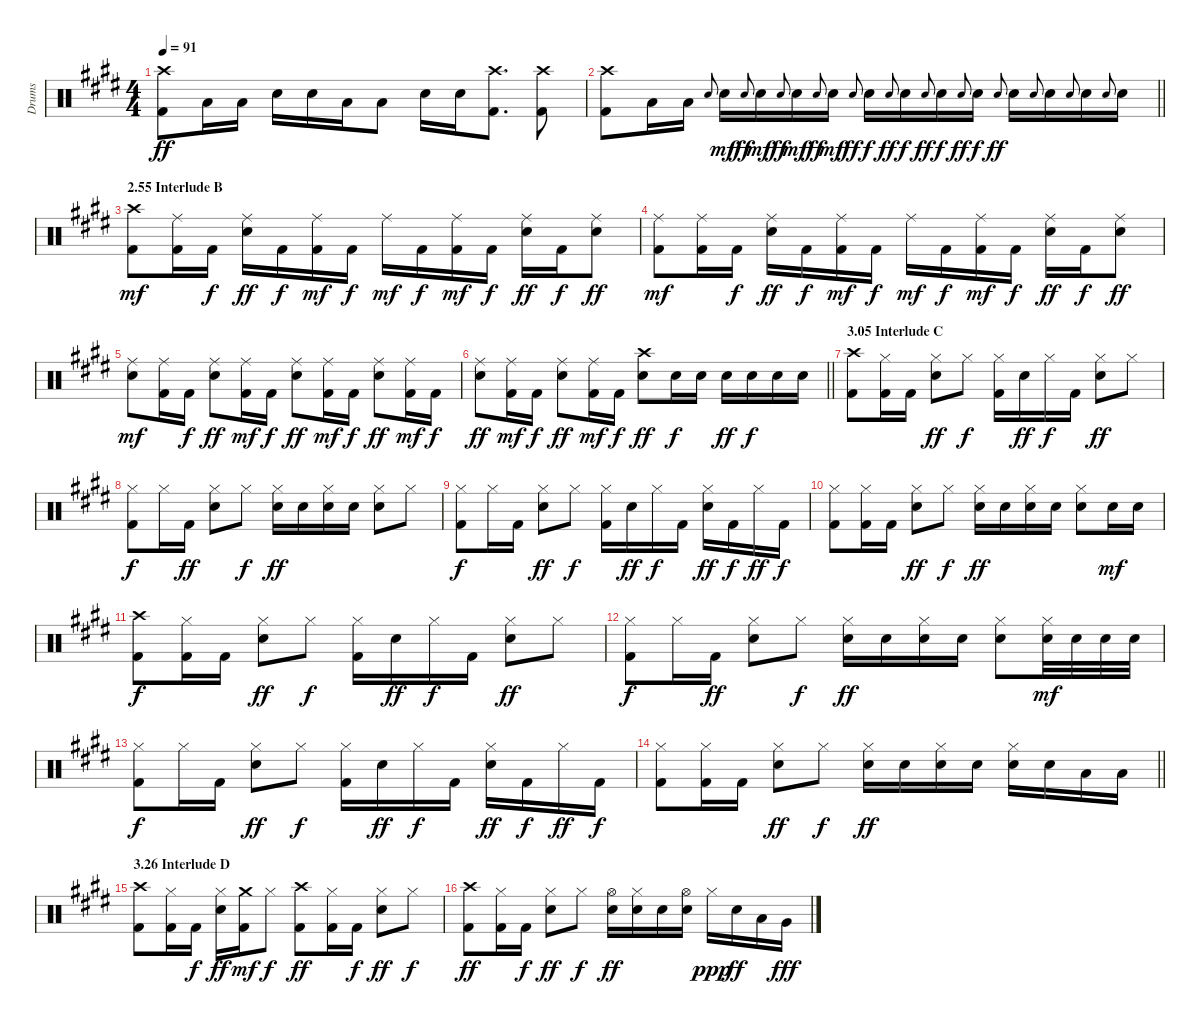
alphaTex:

\track ("Drums" "Drums") {instrument percussion}
\staff {score}
\articulation defaults
\ts (4 4)
\tempo 91
\clef neutral
\ks e
("Crash high (hit)" "Kick (hit) 2").8{dy ff} "Low Tom (hit)".16 "Low Tom (hit)".16 "Snare (hit) 2".16 "Snare (hit) 2".16 "Low Tom (hit)".16 "Low Tom (hit)".8 "Snare (hit) 2".16 "Snare (hit) 2".16 ("Crash high (hit)" "Kick (hit) 2").8{d} ("Crash high (hit)" "Kick (hit) 2").8 |
\barLineRight lightlight
("Crash high (hit)" "Kick (hit) 2").8 "Low Tom (hit)".16 "Low Tom (hit)".16 "Snare (hit) 2".8{gr onbeat} "Snare (hit) 2".16{dy mf} "Snare (hit) 2".8{gr onbeat dy ff} "Snare (hit) 2".16{dy mf} "Snare (hit) 2".8{gr onbeat dy ff} "Snare (hit) 2".16{dy mf} "Snare (hit) 2".8{gr onbeat dy ff} "Snare (hit) 2".16{dy mf} "Snare (hit) 2".8{gr onbeat dy ff} "Snare (hit) 2".16{dy f} "Snare (hit) 2".8{gr onbeat dy ff} "Snare (hit) 2".16{dy f} "Snare (hit) 2".8{gr onbeat dy ff} "Snare (hit) 2".16{dy f} "Snare (hit) 2".8{gr onbeat dy ff} "Snare (hit) 2".16{dy f} "Snare (hit) 2".8{gr onbeat dy ff} "Snare (hit) 2".16 "Snare (hit) 2".8{gr onbeat} "Snare (hit) 2".16 "Snare (hit) 2".8{gr onbeat} "Snare (hit) 2".16 "Snare (hit) 2".8{gr onbeat} "Snare (hit) 2".16 |
\section ("" "2.55 Interlude B")
("Crash high (hit)" "Kick (hit) 2").8{dy mf} ("Ride (middle)" "Kick (hit) 2").16 "Kick (hit) 2".16{dy f} ("Ride (middle)" "Snare (hit) 2").16{dy ff} "Kick (hit) 2".16{dy f} ("Ride (middle)" "Kick (hit) 2").16{dy mf} "Kick (hit) 2".16{dy f} "Ride (middle)".16{dy mf} "Kick (hit) 2".16{dy f} ("Ride (middle)" "Kick (hit) 2").16{dy mf} "Kick (hit) 2".16{dy f} ("Ride (middle)" "Snare (hit) 2").16{dy ff} "Kick (hit) 2".16{dy f} ("Ride (middle)" "Snare (hit) 2").8{dy ff} |
("Ride (middle)" "Kick (hit) 2").8{dy mf} ("Ride (middle)" "Kick (hit) 2").16 "Kick (hit) 2".16{dy f} ("Ride (middle)" "Snare (hit) 2").16{dy ff} "Kick (hit) 2".16{dy f} ("Ride (middle)" "Kick (hit) 2").16{dy mf} "Kick (hit) 2".16{dy f} "Ride (middle)".16{dy mf} "Kick (hit) 2".16{dy f} ("Ride (middle)" "Kick (hit) 2").16{dy mf} "Kick (hit) 2".16{dy f} ("Ride (middle)" "Snare (hit) 2").16{dy ff} "Kick (hit) 2".16{dy f} ("Ride (middle)" "Snare (hit) 2").8{dy ff} |
("Ride (middle)" "Snare (hit) 2").8{dy mf} ("Ride (middle)" "Kick (hit) 2").16 "Kick (hit) 2".16{dy f} ("Ride (middle)" "Snare (hit) 2").8{dy ff} ("Ride (middle)" "Kick (hit) 2").16{dy mf} "Kick (hit) 2".16{dy f} ("Ride (middle)" "Snare (hit) 2").8{dy ff} ("Ride (middle)" "Kick (hit) 2").16{dy mf} "Kick (hit) 2".16{dy f} ("Ride (middle)" "Snare (hit) 2").8{dy ff} ("Ride (middle)" "Kick (hit) 2").16{dy mf} "Kick (hit) 2".16{dy f} |
\barLineRight lightlight
("Ride (middle)" "Snare (hit) 2").8{dy ff} ("Ride (middle)" "Kick (hit) 2").16{dy mf} "Kick (hit) 2".16{dy f} ("Ride (middle)" "Snare (hit) 2").8{dy ff} ("Ride (middle)" "Kick (hit) 2").16{dy mf} "Kick (hit) 2".16{dy f} ("Crash high (hit)" "Snare (hit) 2").8{dy ff} "Snare (hit) 2".16{dy f} "Snare (hit) 2".16 "Snare (hit) 2".16{dy ff} "Snare (hit) 2".16{dy f} "Snare (hit) 2".16 "Snare (hit) 2".16 |
\section ("" "3.05 Interlude C")
("Crash high (hit)" "Kick (hit) 2").8 ("Hi-Hat (closed)" "Kick (hit) 2").16 "Kick (hit) 2".16 ("Hi-Hat (closed)" "Snare (hit) 2").8{dy ff} "Hi-Hat (closed)".8{dy f} ("Hi-Hat (closed)" "Kick (hit) 2").16 "Snare (hit) 2".16{dy ff} "Hi-Hat (closed)".16{dy f} "Kick (hit) 2".16 ("Hi-Hat (closed)" "Snare (hit) 2").8{dy ff} "Hi-Hat (closed)".8 |
("Hi-Hat (closed)" "Kick (hit) 2").8{dy f} "Hi-Hat (closed)".16 "Kick (hit) 2".16{dy ff} ("Hi-Hat (closed)" "Snare (hit) 2").8 "Hi-Hat (closed)".8{dy f} ("Hi-Hat (closed)" "Snare (hit) 2").16{dy ff} "Snare (hit) 2".16 ("Hi-Hat (closed)" "Snare (hit) 2").16 "Snare (hit) 2".16 ("Hi-Hat (closed)" "Snare (hit) 2").8 "Hi-Hat (closed)".8 |
("Hi-Hat (closed)" "Kick (hit) 2").8{dy f} "Hi-Hat (closed)".16 "Kick (hit) 2".16 ("Hi-Hat (closed)" "Snare (hit) 2").8{dy ff} "Hi-Hat (closed)".8{dy f} ("Hi-Hat (closed)" "Kick (hit) 2").16 "Snare (hit) 2".16{dy ff} "Hi-Hat (closed)".16{dy f} "Kick (hit) 2".16 ("Hi-Hat (closed)" "Snare (hit) 2").16{dy ff} "Kick (hit) 2".16{dy f} "Hi-Hat (closed)".16{dy ff} "Kick (hit) 2".16{dy f} |
("Hi-Hat (closed)" "Kick (hit) 2").8 ("Hi-Hat (closed)" "Kick (hit) 2").16 "Kick (hit) 2".16 ("Hi-Hat (closed)" "Snare (hit) 2").8{dy ff} "Hi-Hat (closed)".8{dy f} ("Hi-Hat (closed)" "Snare (hit) 2").16{dy ff} "Snare (hit) 2".16 ("Hi-Hat (closed)" "Snare (hit) 2").16 "Snare (hit) 2".16 ("Hi-Hat (closed)" "Snare (hit) 2").8 "Snare (hit) 2".16{dy mf} "Snare (hit) 2".16 |
("Crash high (hit)" "Kick (hit) 2").8{dy f} ("Hi-Hat (closed)" "Kick (hit) 2").16 "Kick (hit) 2".16 ("Hi-Hat (closed)" "Snare (hit) 2").8{dy ff} "Hi-Hat (closed)".8{dy f} ("Hi-Hat (closed)" "Kick (hit) 2").16 "Snare (hit) 2".16{dy ff} "Hi-Hat (closed)".16{dy f} "Kick (hit) 2".16 ("Hi-Hat (closed)" "Snare (hit) 2").8{dy ff} "Hi-Hat (closed)".8 |
("Hi-Hat (closed)" "Kick (hit) 2").8{dy f} "Hi-Hat (closed)".16 "Kick (hit) 2".16{dy ff} ("Hi-Hat (closed)" "Snare (hit) 2").8 "Hi-Hat (closed)".8{dy f} ("Hi-Hat (closed)" "Snare (hit) 2").16{dy ff} "Snare (hit) 2".16 ("Hi-Hat (closed)" "Snare (hit) 2").16 "Snare (hit) 2".16 ("Hi-Hat (closed)" "Snare (hit) 2").8 ("Hi-Hat (closed)" "Snare (hit) 2").32{dy mf} "Snare (hit) 2".32 "Snare (hit) 2".32 "Snare (hit) 2".32 |
("Hi-Hat (closed)" "Kick (hit) 2").8{dy f} "Hi-Hat (closed)".16 "Kick (hit) 2".16 ("Hi-Hat (closed)" "Snare (hit) 2").8{dy ff} "Hi-Hat (closed)".8{dy f} ("Hi-Hat (closed)" "Kick (hit) 2").16 "Snare (hit) 2".16{dy ff} "Hi-Hat (closed)".16{dy f} "Kick (hit) 2".16 ("Hi-Hat (closed)" "Snare (hit) 2").16{dy ff} "Kick (hit) 2".16{dy f} "Hi-Hat (closed)".16{dy ff} "Kick (hit) 2".16{dy f} |
\barLineRight lightlight
("Hi-Hat (closed)" "Kick (hit) 2").8 ("Hi-Hat (closed)" "Kick (hit) 2").16 "Kick (hit) 2".16 ("Hi-Hat (closed)" "Snare (hit) 2").8{dy ff} "Hi-Hat (closed)".8{dy f} ("Hi-Hat (closed)" "Snare (hit) 2").16{dy ff} "Snare (hit) 2".16 ("Hi-Hat (closed)" "Snare (hit) 2").16 "Snare (hit) 2".16 ("Hi-Hat (closed)" "Snare (hit) 2").16 "Snare (hit) 2".16 "Low Tom (hit)".16 "Low Tom (hit)".16 |
\section ("" "3.26 Interlude D")
("Crash high (hit)" "Kick (hit) 2").8 ("Hi-Hat (closed)" "Kick (hit) 2").16 "Kick (hit) 2".16{dy f} ("Hi-Hat (closed)" "Snare (hit) 2").16{dy ff} ("Crash medium (hit)" "Kick (hit) 2").16{dy mf} "Hi-Hat (closed)".8{dy f} ("Crash high (hit)" "Kick (hit) 2").8{dy ff} ("Hi-Hat (closed)" "Kick (hit) 2").16 "Kick (hit) 2".16{dy f} ("Hi-Hat (closed)" "Snare (hit) 2").8{dy ff} "Hi-Hat (closed)".8{dy f} |
("Crash high (hit)" "Kick (hit) 2").8{dy ff} ("Hi-Hat (closed)" "Kick (hit) 2").16 "Kick (hit) 2".16{dy f} ("Hi-Hat (closed)" "Snare (hit) 2").8{dy ff} "Hi-Hat (closed)".8{dy f} ("Hi-Hat (open)" "Snare (hit) 2").16{dy ff} ("Hi-Hat (closed)" "Snare (hit) 2").16 "Snare (hit) 2".16 ("Hi-Hat (open)" "Snare (hit) 2").16 "Hi-Hat (closed)".16{dy ppp} "Snare (hit) 2".16{dy ff} "Low Tom (hit)".16 "Very Low Tom (hit)".16{dy fff}
